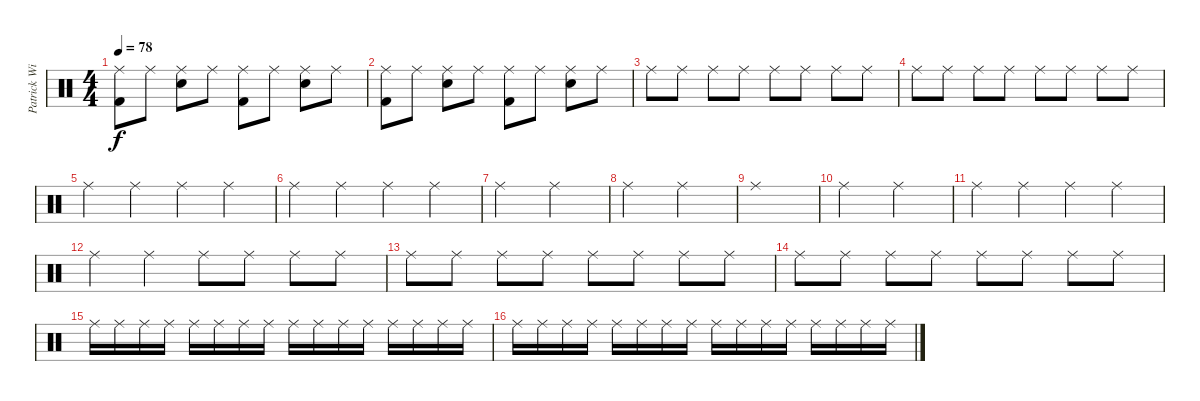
\track ("Patrick Wilson" "Patrick Wi") {instrument percussion}
\staff {score}
\articulation defaults
\ts (4 4)
\tempo 78
\clef neutral
\ks c
("Ride (middle)" "Kick (hit) 2").8{dy f} "Ride (middle)".8 ("Ride (middle)" "Snare (hit) 2").8 "Ride (middle)".8 ("Ride (middle)" "Kick (hit) 2").8 "Ride (middle)".8 ("Ride (middle)" "Snare (hit) 2").8 "Ride (middle)".8 |
("Ride (middle)" "Kick (hit) 2").8 "Ride (middle)".8 ("Ride (middle)" "Snare (hit) 2").8 "Ride (middle)".8 ("Ride (middle)" "Kick (hit) 2").8 "Ride (middle)".8 ("Ride (middle)" "Snare (hit) 2").8 "Ride (middle)".8 |
"Ride (middle)".8 "Ride (middle)".8 "Ride (middle)".8 "Ride (middle)".8 "Ride (middle)".8 "Ride (middle)".8 "Ride (middle)".8 "Ride (middle)".8 |
"Ride (middle)".8 "Ride (middle)".8 "Ride (middle)".8 "Ride (middle)".8 "Ride (middle)".8 "Ride (middle)".8 "Ride (middle)".8 "Ride (middle)".8 |
"Ride (middle)".4 "Ride (middle)".4 "Ride (middle)".4 "Ride (middle)".4 |
"Ride (middle)".4 "Ride (middle)".4 "Ride (middle)".4 "Ride (middle)".4 |
"Ride (middle)".2 "Ride (middle)".2 |
"Ride (middle)".2 "Ride (middle)".2 |
"Ride (middle)".1 |
"Ride (middle)".2 "Ride (middle)".2 |
"Ride (middle)".4 "Ride (middle)".4 "Ride (middle)".4 "Ride (middle)".4 |
"Ride (middle)".4 "Ride (middle)".4 "Ride (middle)".8 "Ride (middle)".8 "Ride (middle)".8 "Ride (middle)".8 |
"Ride (middle)".8 "Ride (middle)".8 "Ride (middle)".8 "Ride (middle)".8 "Ride (middle)".8 "Ride (middle)".8 "Ride (middle)".8 "Ride (middle)".8 |
"Ride (middle)".8 "Ride (middle)".8 "Ride (middle)".8 "Ride (middle)".8 "Ride (middle)".8 "Ride (middle)".8 "Ride (middle)".8 "Ride (middle)".8 |
"Ride (middle)".16 "Ride (middle)".16 "Ride (middle)".16 "Ride (middle)".16 "Ride (middle)".16 "Ride (middle)".16 "Ride (middle)".16 "Ride (middle)".16 "Ride (middle)".16 "Ride (middle)".16 "Ride (middle)".16 "Ride (middle)".16 "Ride (middle)".16 "Ride (middle)".16 "Ride (middle)".16 "Ride (middle)".16 |
"Ride (middle)".16 "Ride (middle)".16 "Ride (middle)".16 "Ride (middle)".16 "Ride (middle)".16 "Ride (middle)".16 "Ride (middle)".16 "Ride (middle)".16 "Ride (middle)".16 "Ride (middle)".16 "Ride (middle)".16 "Ride (middle)".16 "Ride (middle)".16 "Ride (middle)".16 "Ride (middle)".16 "Ride (middle)".16
